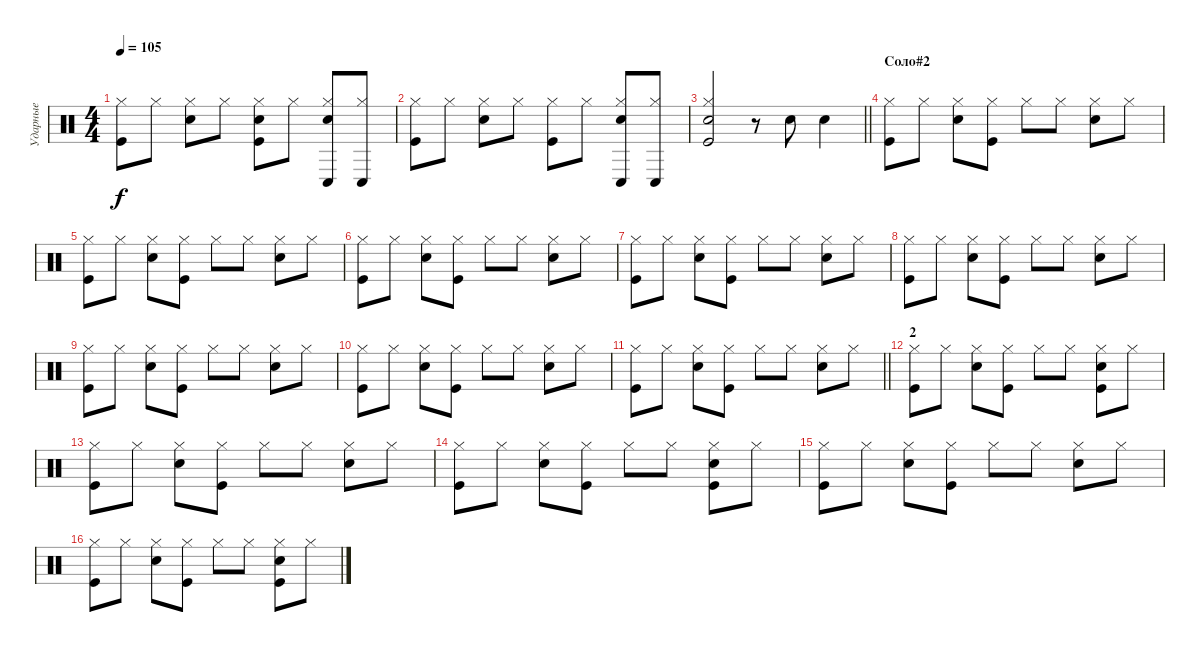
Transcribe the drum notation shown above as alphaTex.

\track ("Ударные" "Ударные") {instrument percussion}
\staff {score}
\articulation defaults
\ts (4 4)
\tempo 105
\clef neutral
\ks c
("Kick (hit)" "Hi-Hat (closed)").8{dy f} "Hi-Hat (closed)".8 ("Snare (hit) 2" "Hi-Hat (closed)").8 "Hi-Hat (closed)".8 ("Hi-Hat (closed)" "Kick (hit)" "Snare (hit) 2").8 "Hi-Hat (closed)".8 ("Hi-Hat (closed)" "Conga low (hit)" "Snare (hit) 2").8 ("Hi-Hat (closed)" "Conga low (hit)").8 |
("Kick (hit)" "Hi-Hat (closed)").8 "Hi-Hat (closed)".8 ("Snare (hit) 2" "Hi-Hat (closed)").8 "Hi-Hat (closed)".8 ("Hi-Hat (closed)" "Kick (hit)").8 "Hi-Hat (closed)".8 ("Hi-Hat (closed)" "Conga low (hit)" "Snare (hit) 2").8 ("Hi-Hat (closed)" "Conga low (hit)").8 |
\barLineRight lightlight
("Kick (hit)" "Hi-Hat (closed)" "Snare (hit) 2").2 r.8 "Snare (hit) 2".8 "Snare (hit) 2".4 |
\section ("" "Соло#2")
("Kick (hit)" "Hi-Hat (closed)").8 "Hi-Hat (closed)".8 ("Snare (hit) 2" "Hi-Hat (closed)").8 ("Hi-Hat (closed)" "Kick (hit)").8 "Hi-Hat (closed)".8 "Hi-Hat (closed)".8 ("Hi-Hat (closed)" "Snare (hit) 2").8 "Hi-Hat (closed)".8 |
("Kick (hit)" "Hi-Hat (closed)").8 "Hi-Hat (closed)".8 ("Snare (hit) 2" "Hi-Hat (closed)").8 ("Hi-Hat (closed)" "Kick (hit)").8 "Hi-Hat (closed)".8 "Hi-Hat (closed)".8 ("Hi-Hat (closed)" "Snare (hit) 2").8 "Hi-Hat (closed)".8 |
("Kick (hit)" "Hi-Hat (closed)").8 "Hi-Hat (closed)".8 ("Snare (hit) 2" "Hi-Hat (closed)").8 ("Hi-Hat (closed)" "Kick (hit)").8 "Hi-Hat (closed)".8 "Hi-Hat (closed)".8 ("Hi-Hat (closed)" "Snare (hit) 2").8 "Hi-Hat (closed)".8 |
("Kick (hit)" "Hi-Hat (closed)").8 "Hi-Hat (closed)".8 ("Snare (hit) 2" "Hi-Hat (closed)").8 ("Hi-Hat (closed)" "Kick (hit)").8 "Hi-Hat (closed)".8 "Hi-Hat (closed)".8 ("Hi-Hat (closed)" "Snare (hit) 2").8 "Hi-Hat (closed)".8 |
("Kick (hit)" "Hi-Hat (closed)").8 "Hi-Hat (closed)".8 ("Snare (hit) 2" "Hi-Hat (closed)").8 ("Hi-Hat (closed)" "Kick (hit)").8 "Hi-Hat (closed)".8 "Hi-Hat (closed)".8 ("Hi-Hat (closed)" "Snare (hit) 2").8 "Hi-Hat (closed)".8 |
("Kick (hit)" "Hi-Hat (closed)").8 "Hi-Hat (closed)".8 ("Snare (hit) 2" "Hi-Hat (closed)").8 ("Hi-Hat (closed)" "Kick (hit)").8 "Hi-Hat (closed)".8 "Hi-Hat (closed)".8 ("Hi-Hat (closed)" "Snare (hit) 2").8 "Hi-Hat (closed)".8 |
("Kick (hit)" "Hi-Hat (closed)").8 "Hi-Hat (closed)".8 ("Snare (hit) 2" "Hi-Hat (closed)").8 ("Hi-Hat (closed)" "Kick (hit)").8 "Hi-Hat (closed)".8 "Hi-Hat (closed)".8 ("Hi-Hat (closed)" "Snare (hit) 2").8 "Hi-Hat (closed)".8 |
\barLineRight lightlight
("Kick (hit)" "Hi-Hat (closed)").8 "Hi-Hat (closed)".8 ("Snare (hit) 2" "Hi-Hat (closed)").8 ("Hi-Hat (closed)" "Kick (hit)").8 "Hi-Hat (closed)".8 "Hi-Hat (closed)".8 ("Hi-Hat (closed)" "Snare (hit) 2").8 "Hi-Hat (closed)".8 |
\section ("" "2")
("Kick (hit)" "Hi-Hat (closed)").8 "Hi-Hat (closed)".8 ("Snare (hit) 2" "Hi-Hat (closed)").8 ("Hi-Hat (closed)" "Kick (hit)").8 "Hi-Hat (closed)".8 "Hi-Hat (closed)".8 ("Hi-Hat (closed)" "Kick (hit)" "Snare (hit) 2").8 "Hi-Hat (closed)".8 |
("Kick (hit)" "Hi-Hat (closed)").8 "Hi-Hat (closed)".8 ("Snare (hit) 2" "Hi-Hat (closed)").8 ("Hi-Hat (closed)" "Kick (hit)").8 "Hi-Hat (closed)".8 "Hi-Hat (closed)".8 ("Hi-Hat (closed)" "Snare (hit) 2").8 "Hi-Hat (closed)".8 |
("Kick (hit)" "Hi-Hat (closed)").8 "Hi-Hat (closed)".8 ("Snare (hit) 2" "Hi-Hat (closed)").8 ("Hi-Hat (closed)" "Kick (hit)").8 "Hi-Hat (closed)".8 "Hi-Hat (closed)".8 ("Hi-Hat (closed)" "Kick (hit)" "Snare (hit) 2").8 "Hi-Hat (closed)".8 |
("Kick (hit)" "Hi-Hat (closed)").8 "Hi-Hat (closed)".8 ("Snare (hit) 2" "Hi-Hat (closed)").8 ("Hi-Hat (closed)" "Kick (hit)").8 "Hi-Hat (closed)".8 "Hi-Hat (closed)".8 ("Hi-Hat (closed)" "Snare (hit) 2").8 "Hi-Hat (closed)".8 |
("Kick (hit)" "Hi-Hat (closed)").8 "Hi-Hat (closed)".8 ("Snare (hit) 2" "Hi-Hat (closed)").8 ("Hi-Hat (closed)" "Kick (hit)").8 "Hi-Hat (closed)".8 "Hi-Hat (closed)".8 ("Hi-Hat (closed)" "Kick (hit)" "Snare (hit) 2").8 "Hi-Hat (closed)".8
